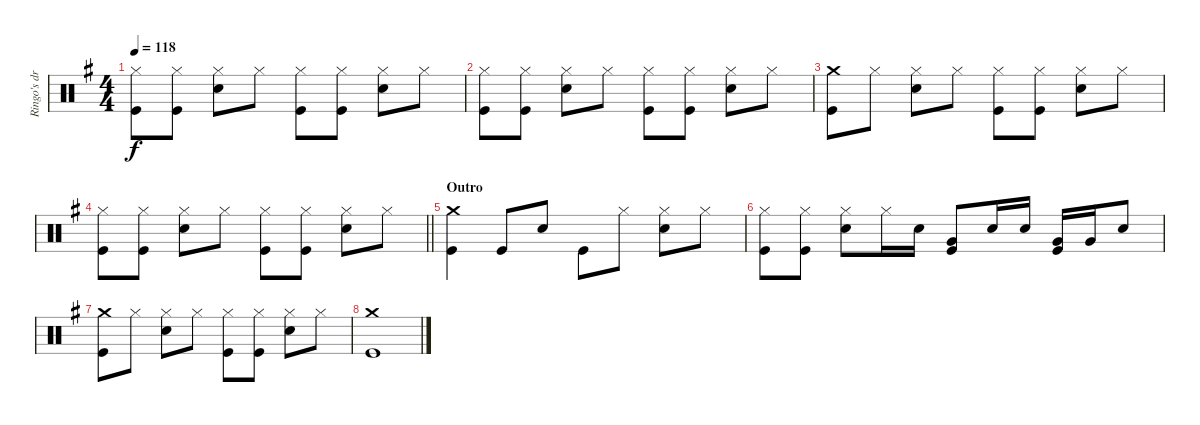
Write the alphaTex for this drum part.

\track ("Ringo's drums" "Ringo's dr") {instrument percussion}
\staff {score}
\articulation defaults
\ts (4 4)
\tempo 118
\clef neutral
\ks g
("Hi-Hat (closed)" "Kick (hit)").8{dy f} ("Hi-Hat (closed)" "Kick (hit)").8 ("Hi-Hat (closed)" "Electric Snare (hit)").8 "Hi-Hat (closed)".8 ("Hi-Hat (closed)" "Kick (hit)").8 ("Hi-Hat (closed)" "Kick (hit)").8 ("Hi-Hat (closed)" "Electric Snare (hit)").8 "Hi-Hat (closed)".8 |
("Hi-Hat (closed)" "Kick (hit)").8 ("Hi-Hat (closed)" "Kick (hit)").8 ("Hi-Hat (closed)" "Electric Snare (hit)").8 "Hi-Hat (closed)".8 ("Hi-Hat (closed)" "Kick (hit)").8 ("Hi-Hat (closed)" "Kick (hit)").8 ("Hi-Hat (closed)" "Electric Snare (hit)").8 "Hi-Hat (closed)".8 |
("Crash medium (hit)" "Kick (hit)").8 "Hi-Hat (closed)".8 ("Hi-Hat (closed)" "Electric Snare (hit)").8 "Hi-Hat (closed)".8 ("Hi-Hat (closed)" "Kick (hit)").8 ("Hi-Hat (closed)" "Kick (hit)").8 ("Hi-Hat (closed)" "Electric Snare (hit)").8 "Hi-Hat (closed)".8 |
\barLineRight lightlight
("Hi-Hat (closed)" "Kick (hit)").8 ("Hi-Hat (closed)" "Kick (hit)").8 ("Hi-Hat (closed)" "Electric Snare (hit)").8 "Hi-Hat (closed)".8 ("Hi-Hat (closed)" "Kick (hit)").8 ("Hi-Hat (closed)" "Kick (hit)").8 ("Hi-Hat (closed)" "Electric Snare (hit)").8 "Hi-Hat (closed)".8 |
\section ("" "Outro")
("Crash medium (hit)" "Kick (hit)").4 "Kick (hit)".8 "Electric Snare (hit)".8 "Kick (hit)".8 "Hi-Hat (closed)".8 ("Hi-Hat (closed)" "Electric Snare (hit)").8 "Hi-Hat (closed)".8 |
("Hi-Hat (closed)" "Kick (hit)").8 ("Hi-Hat (closed)" "Kick (hit)").8 ("Hi-Hat (closed)" "Electric Snare (hit)").8 "Hi-Hat (closed)".16 "Electric Snare (hit)".16 ("Very Low Tom (hit)" "Kick (hit)").8 "Electric Snare (hit)".16 "Electric Snare (hit)".16 ("Very Low Tom (hit)" "Kick (hit)").16 "Very Low Tom (hit)".16 "Electric Snare (hit)".8 |
("Crash medium (hit)" "Kick (hit)").8 "Hi-Hat (closed)".8 ("Hi-Hat (closed)" "Electric Snare (hit)").8 "Hi-Hat (closed)".8 ("Hi-Hat (closed)" "Kick (hit)").8 ("Hi-Hat (closed)" "Kick (hit)").8 ("Hi-Hat (closed)" "Electric Snare (hit)").8 "Hi-Hat (closed)".8 |
("Crash medium (hit)" "Kick (hit)").1
